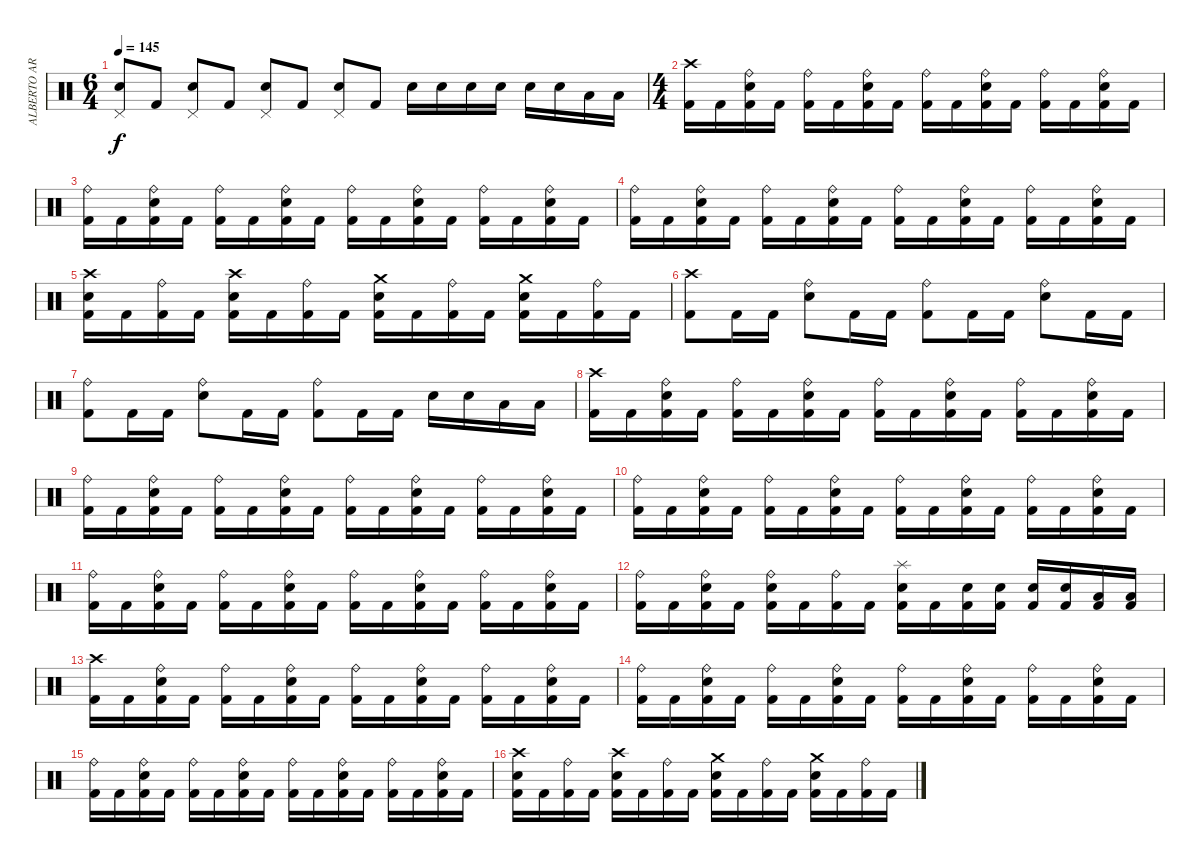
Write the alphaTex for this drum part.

\track ("ALBERTO ARDINES" "ALBERTO AR") {instrument percussion}
\staff {score}
\articulation defaults
\ts (6 4)
\tempo 145
\clef neutral
\ks c
("Pedal Hi-Hat (hit)" "Electric Snare (hit)").8{dy f} "Kick (hit) 2".8 ("Pedal Hi-Hat (hit)" "Electric Snare (hit)").8 "Kick (hit) 2".8 ("Pedal Hi-Hat (hit)" "Electric Snare (hit)").8 "Kick (hit) 2".8 ("Pedal Hi-Hat (hit)" "Electric Snare (hit)").8 "Kick (hit) 2".8 "Electric Snare (hit)".16 "Electric Snare (hit)".16 "Electric Snare (hit)".16 "Electric Snare (hit)".16 "Electric Snare (hit)".16 "Electric Snare (hit)".16 "Low Tom (hit)".16 "Low Tom (hit)".16 |
\ts (4 4)
("Crash high (hit)" "Kick (hit) 2").16 "Kick (hit) 2".16 ("Ride (bell)" "Electric Snare (hit)" "Kick (hit) 2").16 "Kick (hit) 2".16 ("Ride (bell)" "Kick (hit) 2").16 "Kick (hit) 2".16 ("Ride (bell)" "Electric Snare (hit)" "Kick (hit) 2").16 "Kick (hit) 2".16 ("Ride (bell)" "Kick (hit) 2").16 "Kick (hit) 2".16 ("Ride (bell)" "Electric Snare (hit)" "Kick (hit) 2").16 "Kick (hit) 2".16 ("Ride (bell)" "Kick (hit) 2").16 "Kick (hit) 2".16 ("Ride (bell)" "Electric Snare (hit)" "Kick (hit) 2").16 "Kick (hit) 2".16 |
("Ride (bell)" "Kick (hit) 2").16 "Kick (hit) 2".16 ("Ride (bell)" "Electric Snare (hit)" "Kick (hit) 2").16 "Kick (hit) 2".16 ("Ride (bell)" "Kick (hit) 2").16 "Kick (hit) 2".16 ("Ride (bell)" "Electric Snare (hit)" "Kick (hit) 2").16 "Kick (hit) 2".16 ("Ride (bell)" "Kick (hit) 2").16 "Kick (hit) 2".16 ("Ride (bell)" "Electric Snare (hit)" "Kick (hit) 2").16 "Kick (hit) 2".16 ("Ride (bell)" "Kick (hit) 2").16 "Kick (hit) 2".16 ("Ride (bell)" "Electric Snare (hit)" "Kick (hit) 2").16 "Kick (hit) 2".16 |
("Ride (bell)" "Kick (hit) 2").16 "Kick (hit) 2".16 ("Ride (bell)" "Electric Snare (hit)" "Kick (hit) 2").16 "Kick (hit) 2".16 ("Ride (bell)" "Kick (hit) 2").16 "Kick (hit) 2".16 ("Ride (bell)" "Electric Snare (hit)" "Kick (hit) 2").16 "Kick (hit) 2".16 ("Ride (bell)" "Kick (hit) 2").16 "Kick (hit) 2".16 ("Ride (bell)" "Electric Snare (hit)" "Kick (hit) 2").16 "Kick (hit) 2".16 ("Ride (bell)" "Kick (hit) 2").16 "Kick (hit) 2".16 ("Ride (bell)" "Electric Snare (hit)" "Kick (hit) 2").16 "Kick (hit) 2".16 |
("Crash high (hit)" "Electric Snare (hit)" "Kick (hit) 2").16 "Kick (hit) 2".16 ("Ride (bell)" "Kick (hit) 2").16 "Kick (hit) 2".16 ("Crash high (hit)" "Electric Snare (hit)" "Kick (hit) 2").16 "Kick (hit) 2".16 ("Ride (bell)" "Kick (hit) 2").16 "Kick (hit) 2".16 ("Crash medium (hit)" "Electric Snare (hit)" "Kick (hit) 2").16 "Kick (hit) 2".16 ("Ride (bell)" "Kick (hit) 2").16 "Kick (hit) 2".16 ("Crash medium (hit)" "Electric Snare (hit)" "Kick (hit) 2").16 "Kick (hit) 2".16 ("Ride (bell)" "Kick (hit) 2").16 "Kick (hit) 2".16 |
("Crash high (hit)" "Kick (hit) 2").8 "Kick (hit) 2".16 "Kick (hit) 2".16 ("Ride (bell)" "Electric Snare (hit)").8 "Kick (hit) 2".16 "Kick (hit) 2".16 ("Ride (bell)" "Kick (hit) 2").8 "Kick (hit) 2".16 "Kick (hit) 2".16 ("Ride (bell)" "Electric Snare (hit)").8 "Kick (hit) 2".16 "Kick (hit) 2".16 |
("Ride (bell)" "Kick (hit) 2").8 "Kick (hit) 2".16 "Kick (hit) 2".16 ("Ride (bell)" "Electric Snare (hit)").8 "Kick (hit) 2".16 "Kick (hit) 2".16 ("Ride (bell)" "Kick (hit) 2").8 "Kick (hit) 2".16 "Kick (hit) 2".16 "Electric Snare (hit)".16 "Electric Snare (hit)".16 "Low Tom (hit)".16 "Low Tom (hit)".16 |
("Crash high (hit)" "Kick (hit) 2").16 "Kick (hit) 2".16 ("Ride (bell)" "Electric Snare (hit)" "Kick (hit) 2").16 "Kick (hit) 2".16 ("Ride (bell)" "Kick (hit) 2").16 "Kick (hit) 2".16 ("Ride (bell)" "Electric Snare (hit)" "Kick (hit) 2").16 "Kick (hit) 2".16 ("Ride (bell)" "Kick (hit) 2").16 "Kick (hit) 2".16 ("Ride (bell)" "Electric Snare (hit)" "Kick (hit) 2").16 "Kick (hit) 2".16 ("Ride (bell)" "Kick (hit) 2").16 "Kick (hit) 2".16 ("Ride (bell)" "Electric Snare (hit)" "Kick (hit) 2").16 "Kick (hit) 2".16 |
("Ride (bell)" "Kick (hit) 2").16 "Kick (hit) 2".16 ("Ride (bell)" "Electric Snare (hit)" "Kick (hit) 2").16 "Kick (hit) 2".16 ("Ride (bell)" "Kick (hit) 2").16 "Kick (hit) 2".16 ("Ride (bell)" "Electric Snare (hit)" "Kick (hit) 2").16 "Kick (hit) 2".16 ("Ride (bell)" "Kick (hit) 2").16 "Kick (hit) 2".16 ("Ride (bell)" "Electric Snare (hit)" "Kick (hit) 2").16 "Kick (hit) 2".16 ("Ride (bell)" "Kick (hit) 2").16 "Kick (hit) 2".16 ("Ride (bell)" "Electric Snare (hit)" "Kick (hit) 2").16 "Kick (hit) 2".16 |
("Ride (bell)" "Kick (hit) 2").16 "Kick (hit) 2".16 ("Ride (bell)" "Electric Snare (hit)" "Kick (hit) 2").16 "Kick (hit) 2".16 ("Ride (bell)" "Kick (hit) 2").16 "Kick (hit) 2".16 ("Ride (bell)" "Electric Snare (hit)" "Kick (hit) 2").16 "Kick (hit) 2".16 ("Ride (bell)" "Kick (hit) 2").16 "Kick (hit) 2".16 ("Ride (bell)" "Electric Snare (hit)" "Kick (hit) 2").16 "Kick (hit) 2".16 ("Ride (bell)" "Kick (hit) 2").16 "Kick (hit) 2".16 ("Ride (bell)" "Electric Snare (hit)" "Kick (hit) 2").16 "Kick (hit) 2".16 |
("Ride (bell)" "Kick (hit) 2").16 "Kick (hit) 2".16 ("Ride (bell)" "Electric Snare (hit)" "Kick (hit) 2").16 "Kick (hit) 2".16 ("Ride (bell)" "Kick (hit) 2").16 "Kick (hit) 2".16 ("Ride (bell)" "Electric Snare (hit)" "Kick (hit) 2").16 "Kick (hit) 2".16 ("Ride (bell)" "Kick (hit) 2").16 "Kick (hit) 2".16 ("Ride (bell)" "Electric Snare (hit)" "Kick (hit) 2").16 "Kick (hit) 2".16 ("Ride (bell)" "Kick (hit) 2").16 "Kick (hit) 2".16 ("Ride (bell)" "Electric Snare (hit)" "Kick (hit) 2").16 "Kick (hit) 2".16 |
("Ride (bell)" "Kick (hit) 2").16 "Kick (hit) 2".16 ("Ride (bell)" "Electric Snare (hit)" "Kick (hit) 2").16 "Kick (hit) 2".16 ("Ride (bell)" "Electric Snare (hit)" "Kick (hit) 2").16 "Kick (hit) 2".16 ("Ride (bell)" "Kick (hit) 2").16 "Kick (hit) 2".16 ("Splash (hit)" "Electric Snare (hit)" "Kick (hit) 2").16 "Kick (hit) 2".16 ("Electric Snare (hit)" "Kick (hit) 2").16 ("Electric Snare (hit)" "Kick (hit) 2").16 ("Electric Snare (hit)" "Kick (hit) 2").16 ("Electric Snare (hit)" "Kick (hit) 2").16 ("Low Tom (hit)" "Kick (hit) 2").16 ("Low Tom (hit)" "Kick (hit) 2").16 |
("Crash high (hit)" "Kick (hit) 2").16 "Kick (hit) 2".16 ("Ride (bell)" "Electric Snare (hit)" "Kick (hit) 2").16 "Kick (hit) 2".16 ("Ride (bell)" "Kick (hit) 2").16 "Kick (hit) 2".16 ("Ride (bell)" "Electric Snare (hit)" "Kick (hit) 2").16 "Kick (hit) 2".16 ("Ride (bell)" "Kick (hit) 2").16 "Kick (hit) 2".16 ("Ride (bell)" "Electric Snare (hit)" "Kick (hit) 2").16 "Kick (hit) 2".16 ("Ride (bell)" "Kick (hit) 2").16 "Kick (hit) 2".16 ("Ride (bell)" "Electric Snare (hit)" "Kick (hit) 2").16 "Kick (hit) 2".16 |
("Ride (bell)" "Kick (hit) 2").16 "Kick (hit) 2".16 ("Ride (bell)" "Electric Snare (hit)" "Kick (hit) 2").16 "Kick (hit) 2".16 ("Ride (bell)" "Kick (hit) 2").16 "Kick (hit) 2".16 ("Ride (bell)" "Electric Snare (hit)" "Kick (hit) 2").16 "Kick (hit) 2".16 ("Ride (bell)" "Kick (hit) 2").16 "Kick (hit) 2".16 ("Ride (bell)" "Electric Snare (hit)" "Kick (hit) 2").16 "Kick (hit) 2".16 ("Ride (bell)" "Kick (hit) 2").16 "Kick (hit) 2".16 ("Ride (bell)" "Electric Snare (hit)" "Kick (hit) 2").16 "Kick (hit) 2".16 |
("Ride (bell)" "Kick (hit) 2").16 "Kick (hit) 2".16 ("Ride (bell)" "Electric Snare (hit)" "Kick (hit) 2").16 "Kick (hit) 2".16 ("Ride (bell)" "Kick (hit) 2").16 "Kick (hit) 2".16 ("Ride (bell)" "Electric Snare (hit)" "Kick (hit) 2").16 "Kick (hit) 2".16 ("Ride (bell)" "Kick (hit) 2").16 "Kick (hit) 2".16 ("Ride (bell)" "Electric Snare (hit)" "Kick (hit) 2").16 "Kick (hit) 2".16 ("Ride (bell)" "Kick (hit) 2").16 "Kick (hit) 2".16 ("Ride (bell)" "Electric Snare (hit)" "Kick (hit) 2").16 "Kick (hit) 2".16 |
("Crash high (hit)" "Electric Snare (hit)" "Kick (hit) 2").16 "Kick (hit) 2".16 ("Ride (bell)" "Kick (hit) 2").16 "Kick (hit) 2".16 ("Crash high (hit)" "Electric Snare (hit)" "Kick (hit) 2").16 "Kick (hit) 2".16 ("Ride (bell)" "Kick (hit) 2").16 "Kick (hit) 2".16 ("Crash medium (hit)" "Electric Snare (hit)" "Kick (hit) 2").16 "Kick (hit) 2".16 ("Ride (bell)" "Kick (hit) 2").16 "Kick (hit) 2".16 ("Crash medium (hit)" "Electric Snare (hit)" "Kick (hit) 2").16 "Kick (hit) 2".16 ("Ride (bell)" "Kick (hit) 2").16 "Kick (hit) 2".16
